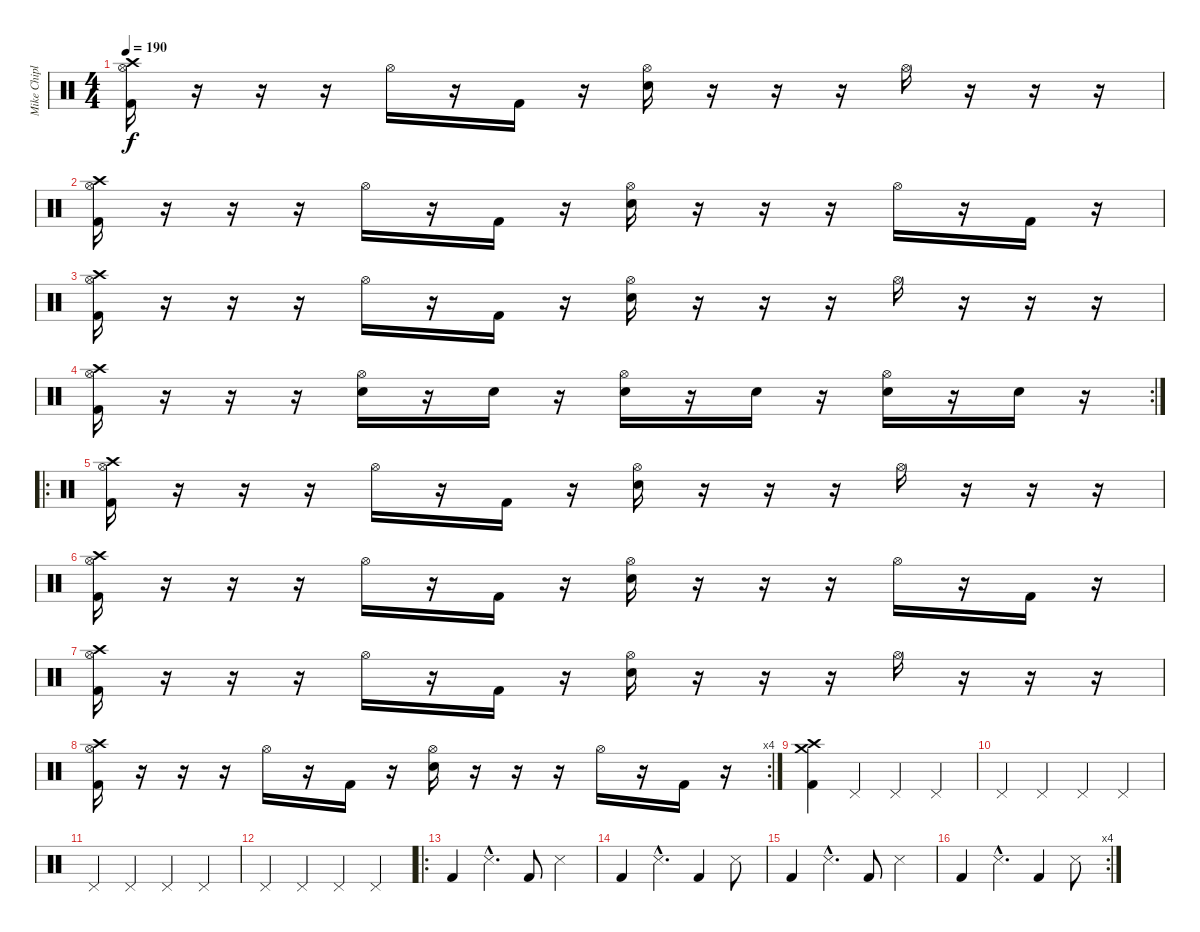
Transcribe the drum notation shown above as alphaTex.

\track ("Mike Chiplin" "Mike Chipl") {instrument percussion}
\staff {score}
\articulation defaults
\ts (4 4)
\tempo 190
\clef neutral
\ks c
("Hi-Hat (open)" "Kick (hit) 2" "Crash high (hit)").16{dy f} r.16 r.16 r.16 "Hi-Hat (open)".16 r.16 "Kick (hit) 2".16 r.16 ("Hi-Hat (open)" "Snare (hit) 2").16 r.16 r.16 r.16 "Hi-Hat (open)".16 r.16 r.16 r.16 |
("Hi-Hat (open)" "Kick (hit) 2" "Crash high (hit)").16 r.16 r.16 r.16 "Hi-Hat (open)".16 r.16 "Kick (hit) 2".16 r.16 ("Hi-Hat (open)" "Snare (hit) 2").16 r.16 r.16 r.16 "Hi-Hat (open)".16 r.16 "Kick (hit) 2".16 r.16 |
("Hi-Hat (open)" "Kick (hit) 2" "Crash high (hit)").16 r.16 r.16 r.16 "Hi-Hat (open)".16 r.16 "Kick (hit) 2".16 r.16 ("Hi-Hat (open)" "Snare (hit) 2").16 r.16 r.16 r.16 "Hi-Hat (open)".16 r.16 r.16 r.16 |
\rc 2
("Hi-Hat (open)" "Kick (hit) 2" "Crash high (hit)").16 r.16 r.16 r.16 ("Hi-Hat (open)" "Snare (hit) 2").16 r.16 "Snare (hit) 2".16 r.16 ("Hi-Hat (open)" "Snare (hit) 2").16 r.16 "Snare (hit) 2".16 r.16 ("Hi-Hat (open)" "Snare (hit) 2").16 r.16 "Snare (hit) 2".16 r.16 |
\ro
("Hi-Hat (open)" "Kick (hit) 2" "Crash high (hit)").16 r.16 r.16 r.16 "Hi-Hat (open)".16 r.16 "Kick (hit) 2".16 r.16 ("Hi-Hat (open)" "Snare (hit) 2").16 r.16 r.16 r.16 "Hi-Hat (open)".16 r.16 r.16 r.16 |
("Hi-Hat (open)" "Kick (hit) 2" "Crash high (hit)").16 r.16 r.16 r.16 "Hi-Hat (open)".16 r.16 "Kick (hit) 2".16 r.16 ("Hi-Hat (open)" "Snare (hit) 2").16 r.16 r.16 r.16 "Hi-Hat (open)".16 r.16 "Kick (hit) 2".16 r.16 |
("Hi-Hat (open)" "Kick (hit) 2" "Crash high (hit)").16 r.16 r.16 r.16 "Hi-Hat (open)".16 r.16 "Kick (hit) 2".16 r.16 ("Hi-Hat (open)" "Snare (hit) 2").16 r.16 r.16 r.16 "Hi-Hat (open)".16 r.16 r.16 r.16 |
\rc 4
("Hi-Hat (open)" "Kick (hit) 2" "Crash high (hit)").16 r.16 r.16 r.16 "Hi-Hat (open)".16 r.16 "Kick (hit) 2".16 r.16 ("Hi-Hat (open)" "Snare (hit) 2").16 r.16 r.16 r.16 "Hi-Hat (open)".16 r.16 "Kick (hit) 2".16 r.16 |
("Crash medium (hit)" "Kick (hit) 2" "Crash high (hit)").4 "Pedal Hi-Hat (hit)".4 "Pedal Hi-Hat (hit)".4 "Pedal Hi-Hat (hit)".4 |
"Pedal Hi-Hat (hit)".4 "Pedal Hi-Hat (hit)".4 "Pedal Hi-Hat (hit)".4 "Pedal Hi-Hat (hit)".4 |
"Pedal Hi-Hat (hit)".4 "Pedal Hi-Hat (hit)".4 "Pedal Hi-Hat (hit)".4 "Pedal Hi-Hat (hit)".4 |
"Pedal Hi-Hat (hit)".4 "Pedal Hi-Hat (hit)".4 "Pedal Hi-Hat (hit)".4 "Pedal Hi-Hat (hit)".4 |
\ro "Kick (hit) 2".4 "Snare (side stick) 3"{hac}.4{d} "Kick (hit) 2".8 "Snare (side stick) 3".4
|
"Kick (hit) 2".4 "Snare (side stick) 3"{hac}.4{d} "Kick (hit) 2".4 "Snare (side stick) 3".8 |
"Kick (hit) 2".4 "Snare (side stick) 3"{hac}.4{d} "Kick (hit) 2".8 "Snare (side stick) 3".4 |
\rc 4 "Kick (hit) 2".4 "Snare (side stick) 3"{hac}.4{d} "Kick (hit) 2".4 "Snare (side stick) 3".8
